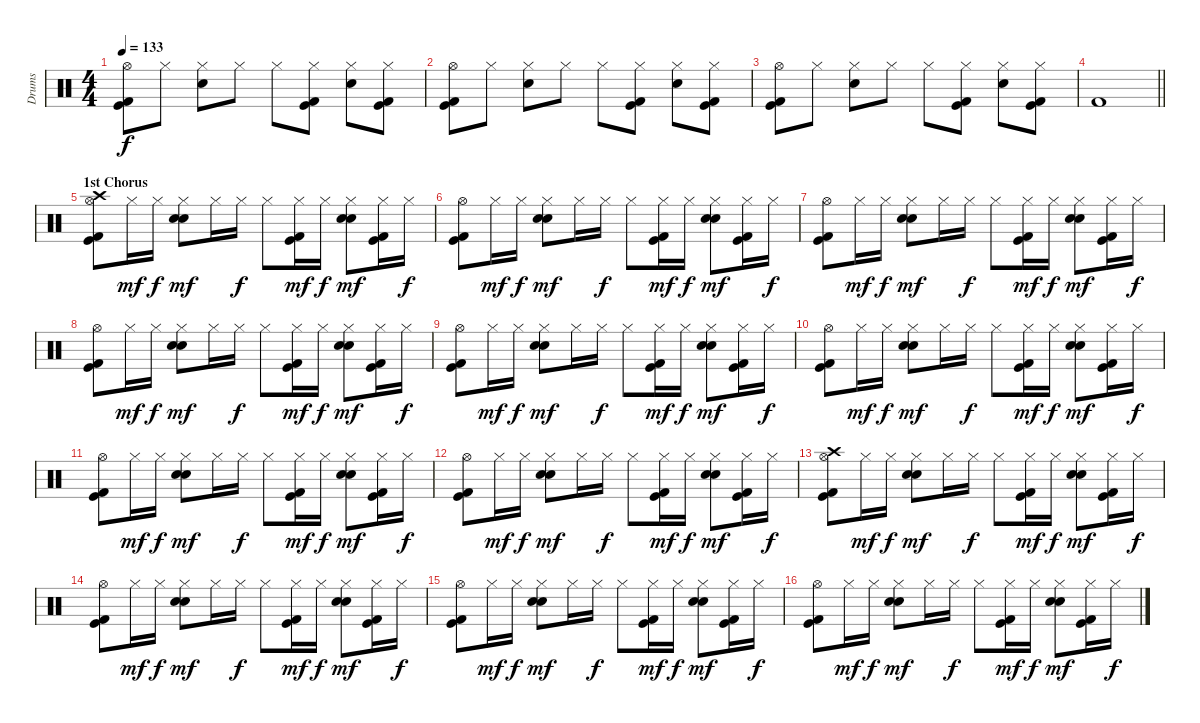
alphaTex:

\track ("Drums" "Drums") {instrument percussion}
\staff {score}
\articulation defaults
\ts (4 4)
\tempo 133
\clef neutral
\ks c
("Hi-Hat (open)" "Kick (hit)" "Kick (hit) 2").8{dy f} "Hi-Hat (closed)".8 ("Hi-Hat (closed)" "Snare (hit) 2").8 "Hi-Hat (closed)".8 "Hi-Hat (closed)".8 ("Hi-Hat (closed)" "Kick (hit)" "Kick (hit) 2").8 ("Hi-Hat (closed)" "Snare (hit) 2").8 ("Hi-Hat (closed)" "Kick (hit)" "Kick (hit) 2").8 |
("Hi-Hat (open)" "Kick (hit)" "Kick (hit) 2").8 "Hi-Hat (closed)".8 ("Hi-Hat (closed)" "Snare (hit) 2").8 "Hi-Hat (closed)".8 "Hi-Hat (closed)".8 ("Hi-Hat (closed)" "Kick (hit)" "Kick (hit) 2").8 ("Hi-Hat (closed)" "Snare (hit) 2").8 ("Hi-Hat (closed)" "Kick (hit)" "Kick (hit) 2").8 |
("Hi-Hat (open)" "Kick (hit)" "Kick (hit) 2").8 "Hi-Hat (closed)".8 ("Hi-Hat (closed)" "Snare (hit) 2").8 "Hi-Hat (closed)".8 "Hi-Hat (closed)".8 ("Hi-Hat (closed)" "Kick (hit)" "Kick (hit) 2").8 ("Hi-Hat (closed)" "Snare (hit) 2").8 ("Hi-Hat (closed)" "Kick (hit)" "Kick (hit) 2").8 |
\barLineRight lightlight "Kick (hit) 2".1
|
\section ("" "1st Chorus")
("Crash high (hit)" "Hi-Hat (open)" "Kick (hit)" "Kick (hit) 2").8 "Hi-Hat (closed)".16{dy mf} "Hi-Hat (closed)".16{dy f} ("Hi-Hat (closed)" "Snare (hit) 2" "Hand Clap (hit)").8{dy mf} "Hi-Hat (closed)".16 "Hi-Hat (closed)".16{dy f} "Hi-Hat (closed)".8 ("Hi-Hat (closed)" "Kick (hit)" "Kick (hit) 2").16{dy mf} "Hi-Hat (closed)".16{dy f} ("Hi-Hat (closed)" "Snare (hit) 2" "Hand Clap (hit)").8{dy mf} ("Hi-Hat (closed)" "Kick (hit)" "Kick (hit) 2").16 "Hi-Hat (closed)".16{dy f} |
("Hi-Hat (open)" "Kick (hit)" "Kick (hit) 2").8 "Hi-Hat (closed)".16{dy mf} "Hi-Hat (closed)".16{dy f} ("Hi-Hat (closed)" "Snare (hit) 2" "Hand Clap (hit)").8{dy mf} "Hi-Hat (closed)".16 "Hi-Hat (closed)".16{dy f} "Hi-Hat (closed)".8 ("Hi-Hat (closed)" "Kick (hit)" "Kick (hit) 2").16{dy mf} "Hi-Hat (closed)".16{dy f} ("Hi-Hat (closed)" "Snare (hit) 2" "Hand Clap (hit)").8{dy mf} ("Hi-Hat (closed)" "Kick (hit)" "Kick (hit) 2").16 "Hi-Hat (closed)".16{dy f} |
("Hi-Hat (open)" "Kick (hit)" "Kick (hit) 2").8 "Hi-Hat (closed)".16{dy mf} "Hi-Hat (closed)".16{dy f} ("Hi-Hat (closed)" "Snare (hit) 2" "Hand Clap (hit)").8{dy mf} "Hi-Hat (closed)".16 "Hi-Hat (closed)".16{dy f} "Hi-Hat (closed)".8 ("Hi-Hat (closed)" "Kick (hit)" "Kick (hit) 2").16{dy mf} "Hi-Hat (closed)".16{dy f} ("Hi-Hat (closed)" "Snare (hit) 2" "Hand Clap (hit)").8{dy mf} ("Hi-Hat (closed)" "Kick (hit)" "Kick (hit) 2").16 "Hi-Hat (closed)".16{dy f} |
("Hi-Hat (open)" "Kick (hit)" "Kick (hit) 2").8 "Hi-Hat (closed)".16{dy mf} "Hi-Hat (closed)".16{dy f} ("Hi-Hat (closed)" "Snare (hit) 2" "Hand Clap (hit)").8{dy mf} "Hi-Hat (closed)".16 "Hi-Hat (closed)".16{dy f} "Hi-Hat (closed)".8 ("Hi-Hat (closed)" "Kick (hit)" "Kick (hit) 2").16{dy mf} "Hi-Hat (closed)".16{dy f} ("Hi-Hat (closed)" "Snare (hit) 2" "Hand Clap (hit)").8{dy mf} ("Hi-Hat (closed)" "Kick (hit)" "Kick (hit) 2").16 "Hi-Hat (closed)".16{dy f} |
("Hi-Hat (open)" "Kick (hit)" "Kick (hit) 2").8 "Hi-Hat (closed)".16{dy mf} "Hi-Hat (closed)".16{dy f} ("Hi-Hat (closed)" "Snare (hit) 2" "Hand Clap (hit)").8{dy mf} "Hi-Hat (closed)".16 "Hi-Hat (closed)".16{dy f} "Hi-Hat (closed)".8 ("Hi-Hat (closed)" "Kick (hit)" "Kick (hit) 2").16{dy mf} "Hi-Hat (closed)".16{dy f} ("Hi-Hat (closed)" "Snare (hit) 2" "Hand Clap (hit)").8{dy mf} ("Hi-Hat (closed)" "Kick (hit)" "Kick (hit) 2").16 "Hi-Hat (closed)".16{dy f} |
("Hi-Hat (open)" "Kick (hit)" "Kick (hit) 2").8 "Hi-Hat (closed)".16{dy mf} "Hi-Hat (closed)".16{dy f} ("Hi-Hat (closed)" "Snare (hit) 2" "Hand Clap (hit)").8{dy mf} "Hi-Hat (closed)".16 "Hi-Hat (closed)".16{dy f} "Hi-Hat (closed)".8 ("Hi-Hat (closed)" "Kick (hit)" "Kick (hit) 2").16{dy mf} "Hi-Hat (closed)".16{dy f} ("Hi-Hat (closed)" "Snare (hit) 2" "Hand Clap (hit)").8{dy mf} ("Hi-Hat (closed)" "Kick (hit)" "Kick (hit) 2").16 "Hi-Hat (closed)".16{dy f} |
("Hi-Hat (open)" "Kick (hit)" "Kick (hit) 2").8 "Hi-Hat (closed)".16{dy mf} "Hi-Hat (closed)".16{dy f} ("Hi-Hat (closed)" "Snare (hit) 2" "Hand Clap (hit)").8{dy mf} "Hi-Hat (closed)".16 "Hi-Hat (closed)".16{dy f} "Hi-Hat (closed)".8 ("Hi-Hat (closed)" "Kick (hit)" "Kick (hit) 2").16{dy mf} "Hi-Hat (closed)".16{dy f} ("Hi-Hat (closed)" "Snare (hit) 2" "Hand Clap (hit)").8{dy mf} ("Hi-Hat (closed)" "Kick (hit)" "Kick (hit) 2").16 "Hi-Hat (closed)".16{dy f} |
("Hi-Hat (open)" "Kick (hit)" "Kick (hit) 2").8 "Hi-Hat (closed)".16{dy mf} "Hi-Hat (closed)".16{dy f} ("Hi-Hat (closed)" "Snare (hit) 2" "Hand Clap (hit)").8{dy mf} "Hi-Hat (closed)".16 "Hi-Hat (closed)".16{dy f} "Hi-Hat (closed)".8 ("Hi-Hat (closed)" "Kick (hit)" "Kick (hit) 2").16{dy mf} "Hi-Hat (closed)".16{dy f} ("Hi-Hat (closed)" "Snare (hit) 2" "Hand Clap (hit)").8{dy mf} ("Hi-Hat (closed)" "Kick (hit)" "Kick (hit) 2").16 "Hi-Hat (closed)".16{dy f} |
("Crash high (hit)" "Hi-Hat (open)" "Kick (hit)" "Kick (hit) 2").8 "Hi-Hat (closed)".16{dy mf} "Hi-Hat (closed)".16{dy f} ("Hi-Hat (closed)" "Snare (hit) 2" "Hand Clap (hit)").8{dy mf} "Hi-Hat (closed)".16 "Hi-Hat (closed)".16{dy f} "Hi-Hat (closed)".8 ("Hi-Hat (closed)" "Kick (hit)" "Kick (hit) 2").16{dy mf} "Hi-Hat (closed)".16{dy f} ("Hi-Hat (closed)" "Snare (hit) 2" "Hand Clap (hit)").8{dy mf} ("Hi-Hat (closed)" "Kick (hit)" "Kick (hit) 2").16 "Hi-Hat (closed)".16{dy f} |
("Hi-Hat (open)" "Kick (hit)" "Kick (hit) 2").8 "Hi-Hat (closed)".16{dy mf} "Hi-Hat (closed)".16{dy f} ("Hi-Hat (closed)" "Snare (hit) 2" "Hand Clap (hit)").8{dy mf} "Hi-Hat (closed)".16 "Hi-Hat (closed)".16{dy f} "Hi-Hat (closed)".8 ("Hi-Hat (closed)" "Kick (hit)" "Kick (hit) 2").16{dy mf} "Hi-Hat (closed)".16{dy f} ("Hi-Hat (closed)" "Snare (hit) 2" "Hand Clap (hit)").8{dy mf} ("Hi-Hat (closed)" "Kick (hit)" "Kick (hit) 2").16 "Hi-Hat (closed)".16{dy f} |
("Hi-Hat (open)" "Kick (hit)" "Kick (hit) 2").8 "Hi-Hat (closed)".16{dy mf} "Hi-Hat (closed)".16{dy f} ("Hi-Hat (closed)" "Snare (hit) 2" "Hand Clap (hit)").8{dy mf} "Hi-Hat (closed)".16 "Hi-Hat (closed)".16{dy f} "Hi-Hat (closed)".8 ("Hi-Hat (closed)" "Kick (hit)" "Kick (hit) 2").16{dy mf} "Hi-Hat (closed)".16{dy f} ("Hi-Hat (closed)" "Snare (hit) 2" "Hand Clap (hit)").8{dy mf} ("Hi-Hat (closed)" "Kick (hit)" "Kick (hit) 2").16 "Hi-Hat (closed)".16{dy f} |
("Hi-Hat (open)" "Kick (hit)" "Kick (hit) 2").8 "Hi-Hat (closed)".16{dy mf} "Hi-Hat (closed)".16{dy f} ("Hi-Hat (closed)" "Snare (hit) 2" "Hand Clap (hit)").8{dy mf} "Hi-Hat (closed)".16 "Hi-Hat (closed)".16{dy f} "Hi-Hat (closed)".8 ("Hi-Hat (closed)" "Kick (hit)" "Kick (hit) 2").16{dy mf} "Hi-Hat (closed)".16{dy f} ("Hi-Hat (closed)" "Snare (hit) 2" "Hand Clap (hit)").8{dy mf} ("Hi-Hat (closed)" "Kick (hit)" "Kick (hit) 2").16 "Hi-Hat (closed)".16{dy f}
